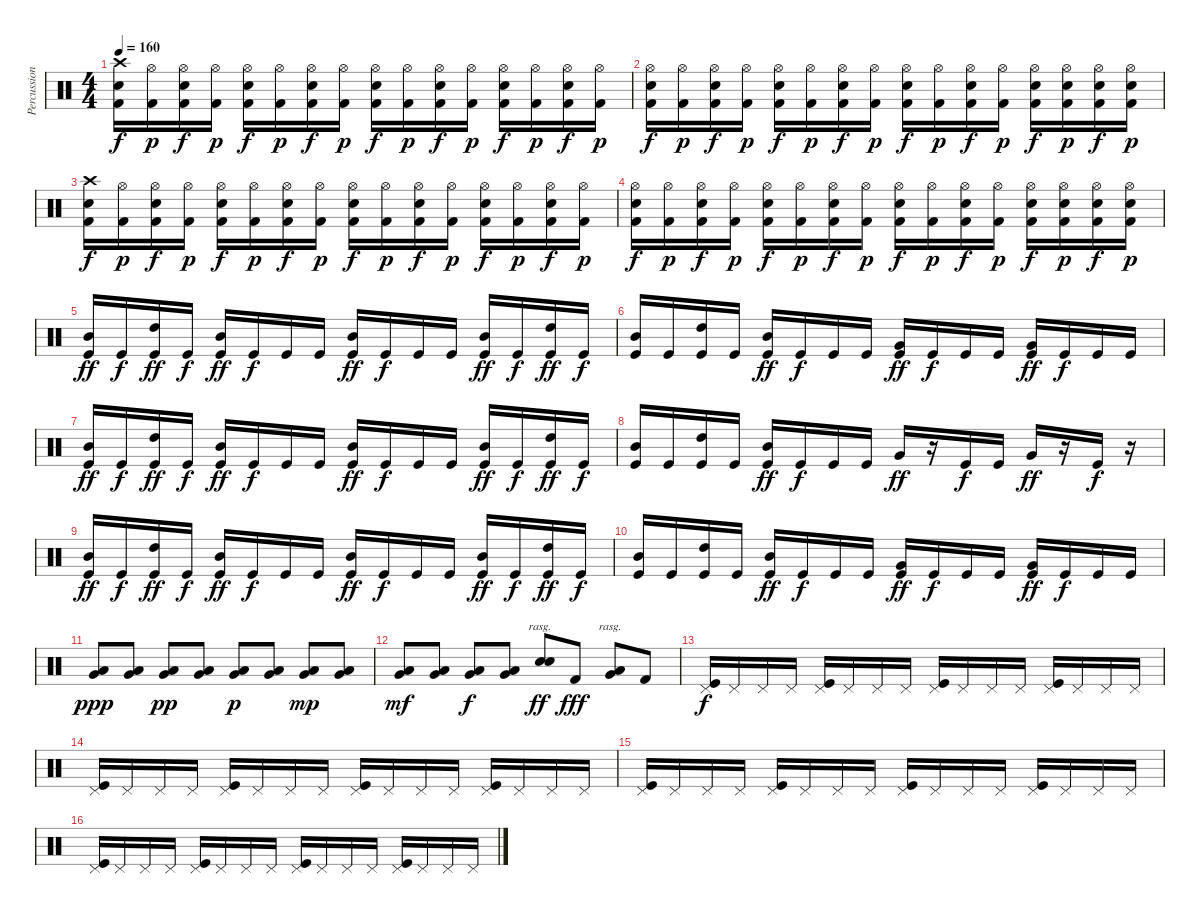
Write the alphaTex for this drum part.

\track ("Percussioni" "Percussion") {instrument percussion}
\staff {score}
\articulation defaults
\ts (4 4)
\tempo 160
\clef neutral
\ks c
("Crash high (hit)" "Electric Snare (hit)" "Kick (hit) 2").16{dy f} ("Hi-Hat (open)" "Kick (hit) 2").16{dy p} ("Hi-Hat (open)" "Electric Snare (hit)" "Kick (hit) 2").16{dy f} ("Hi-Hat (open)" "Kick (hit) 2").16{dy p} ("Hi-Hat (open)" "Electric Snare (hit)" "Kick (hit) 2").16{dy f} ("Hi-Hat (open)" "Kick (hit) 2").16{dy p} ("Hi-Hat (open)" "Electric Snare (hit)" "Kick (hit) 2").16{dy f} ("Hi-Hat (open)" "Kick (hit) 2").16{dy p} ("Hi-Hat (open)" "Electric Snare (hit)" "Kick (hit) 2").16{dy f} ("Hi-Hat (open)" "Kick (hit) 2").16{dy p} ("Hi-Hat (open)" "Electric Snare (hit)" "Kick (hit) 2").16{dy f} ("Hi-Hat (open)" "Kick (hit) 2").16{dy p} ("Hi-Hat (open)" "Electric Snare (hit)" "Kick (hit) 2").16{dy f} ("Hi-Hat (open)" "Kick (hit) 2").16{dy p} ("Hi-Hat (open)" "Electric Snare (hit)" "Kick (hit) 2").16{dy f} ("Hi-Hat (open)" "Kick (hit) 2").16{dy p} |
("Hi-Hat (open)" "Electric Snare (hit)" "Kick (hit) 2").16{dy f} ("Hi-Hat (open)" "Kick (hit) 2").16{dy p} ("Hi-Hat (open)" "Electric Snare (hit)" "Kick (hit) 2").16{dy f} ("Hi-Hat (open)" "Kick (hit) 2").16{dy p} ("Hi-Hat (open)" "Electric Snare (hit)" "Kick (hit) 2").16{dy f} ("Hi-Hat (open)" "Kick (hit) 2").16{dy p} ("Hi-Hat (open)" "Electric Snare (hit)" "Kick (hit) 2").16{dy f} ("Hi-Hat (open)" "Kick (hit) 2").16{dy p} ("Hi-Hat (open)" "Electric Snare (hit)" "Kick (hit) 2").16{dy f} ("Hi-Hat (open)" "Kick (hit) 2").16{dy p} ("Hi-Hat (open)" "Electric Snare (hit)" "Kick (hit) 2").16{dy f} ("Hi-Hat (open)" "Kick (hit) 2").16{dy p} ("Hi-Hat (open)" "Electric Snare (hit)" "Kick (hit) 2").16{dy f} ("Hi-Hat (open)" "Electric Snare (hit)" "Kick (hit) 2").16{dy p} ("Hi-Hat (open)" "Electric Snare (hit)" "Kick (hit) 2").16{dy f} ("Hi-Hat (open)" "Electric Snare (hit)" "Kick (hit) 2").16{dy p} |
("Crash high (hit)" "Electric Snare (hit)" "Kick (hit) 2").16{dy f} ("Hi-Hat (open)" "Kick (hit) 2").16{dy p} ("Hi-Hat (open)" "Electric Snare (hit)" "Kick (hit) 2").16{dy f} ("Hi-Hat (open)" "Kick (hit) 2").16{dy p} ("Hi-Hat (open)" "Electric Snare (hit)" "Kick (hit) 2").16{dy f} ("Hi-Hat (open)" "Kick (hit) 2").16{dy p} ("Hi-Hat (open)" "Electric Snare (hit)" "Kick (hit) 2").16{dy f} ("Hi-Hat (open)" "Kick (hit) 2").16{dy p} ("Hi-Hat (open)" "Electric Snare (hit)" "Kick (hit) 2").16{dy f} ("Hi-Hat (open)" "Kick (hit) 2").16{dy p} ("Hi-Hat (open)" "Electric Snare (hit)" "Kick (hit) 2").16{dy f} ("Hi-Hat (open)" "Kick (hit) 2").16{dy p} ("Hi-Hat (open)" "Electric Snare (hit)" "Kick (hit) 2").16{dy f} ("Hi-Hat (open)" "Kick (hit) 2").16{dy p} ("Hi-Hat (open)" "Electric Snare (hit)" "Kick (hit) 2").16{dy f} ("Hi-Hat (open)" "Kick (hit) 2").16{dy p} |
("Hi-Hat (open)" "Electric Snare (hit)" "Kick (hit) 2").16{dy f} ("Hi-Hat (open)" "Kick (hit) 2").16{dy p} ("Hi-Hat (open)" "Electric Snare (hit)" "Kick (hit) 2").16{dy f} ("Hi-Hat (open)" "Kick (hit) 2").16{dy p} ("Hi-Hat (open)" "Electric Snare (hit)" "Kick (hit) 2").16{dy f} ("Hi-Hat (open)" "Kick (hit) 2").16{dy p} ("Hi-Hat (open)" "Electric Snare (hit)" "Kick (hit) 2").16{dy f} ("Hi-Hat (open)" "Kick (hit) 2").16{dy p} ("Hi-Hat (open)" "Electric Snare (hit)" "Kick (hit) 2").16{dy f} ("Hi-Hat (open)" "Kick (hit) 2").16{dy p} ("Hi-Hat (open)" "Electric Snare (hit)" "Kick (hit) 2").16{dy f} ("Hi-Hat (open)" "Kick (hit) 2").16{dy p} ("Hi-Hat (open)" "Electric Snare (hit)" "Kick (hit) 2").16{dy f} ("Hi-Hat (open)" "Electric Snare (hit)" "Kick (hit) 2").16{dy p} ("Hi-Hat (open)" "Electric Snare (hit)" "Kick (hit) 2").16{dy f} ("Hi-Hat (open)" "Electric Snare (hit)" "Kick (hit) 2").16{dy p} |
("Mid Tom (hit)" "Kick (hit)").16{dy ff} "Kick (hit)".16{dy f} ("High Tom (hit)" "Kick (hit)").16{dy ff} "Kick (hit)".16{dy f} ("Mid Tom (hit)" "Kick (hit)").16{dy ff} "Kick (hit)".16{dy f} "Kick (hit)".16 "Kick (hit)".16 ("Mid Tom (hit)" "Kick (hit)").16{dy ff} "Kick (hit)".16{dy f} "Kick (hit)".16 "Kick (hit)".16 ("Mid Tom (hit)" "Kick (hit)").16{dy ff} "Kick (hit)".16{dy f} ("High Tom (hit)" "Kick (hit)").16{dy ff} "Kick (hit)".16{dy f} |
("Mid Tom (hit)" "Kick (hit)").16 "Kick (hit)".16 ("High Tom (hit)" "Kick (hit)").16 "Kick (hit)".16 ("Mid Tom (hit)" "Kick (hit)").16{dy ff} "Kick (hit)".16{dy f} "Kick (hit)".16 "Kick (hit)".16 ("Very Low Tom (hit)" "Kick (hit)").16{dy ff} "Kick (hit)".16{dy f} "Kick (hit)".16 "Kick (hit)".16 ("Very Low Tom (hit)" "Kick (hit)").16{dy ff} "Kick (hit)".16{dy f} "Kick (hit)".16 "Kick (hit)".16 |
("Mid Tom (hit)" "Kick (hit)").16{dy ff} "Kick (hit)".16{dy f} ("High Tom (hit)" "Kick (hit)").16{dy ff} "Kick (hit)".16{dy f} ("Mid Tom (hit)" "Kick (hit)").16{dy ff} "Kick (hit)".16{dy f} "Kick (hit)".16 "Kick (hit)".16 ("Mid Tom (hit)" "Kick (hit)").16{dy ff} "Kick (hit)".16{dy f} "Kick (hit)".16 "Kick (hit)".16 ("Mid Tom (hit)" "Kick (hit)").16{dy ff} "Kick (hit)".16{dy f} ("High Tom (hit)" "Kick (hit)").16{dy ff} "Kick (hit)".16{dy f} |
("Mid Tom (hit)" "Kick (hit)").16 "Kick (hit)".16 ("High Tom (hit)" "Kick (hit)").16 "Kick (hit)".16 ("Mid Tom (hit)" "Kick (hit)").16{dy ff} "Kick (hit)".16{dy f} "Kick (hit)".16 "Kick (hit)".16 "Very Low Tom (hit)".16{dy ff} r.16 "Kick (hit)".16{dy f} "Kick (hit)".16 "Very Low Tom (hit)".16{dy ff} r.16 "Kick (hit)".16{dy f} r.16 |
("Mid Tom (hit)" "Kick (hit)").16{dy ff} "Kick (hit)".16{dy f} ("High Tom (hit)" "Kick (hit)").16{dy ff} "Kick (hit)".16{dy f} ("Mid Tom (hit)" "Kick (hit)").16{dy ff} "Kick (hit)".16{dy f} "Kick (hit)".16 "Kick (hit)".16 ("Mid Tom (hit)" "Kick (hit)").16{dy ff} "Kick (hit)".16{dy f} "Kick (hit)".16 "Kick (hit)".16 ("Mid Tom (hit)" "Kick (hit)").16{dy ff} "Kick (hit)".16{dy f} ("High Tom (hit)" "Kick (hit)").16{dy ff} "Kick (hit)".16{dy f} |
("Mid Tom (hit)" "Kick (hit)").16 "Kick (hit)".16 ("High Tom (hit)" "Kick (hit)").16 "Kick (hit)".16 ("Mid Tom (hit)" "Kick (hit)").16{dy ff} "Kick (hit)".16{dy f} "Kick (hit)".16 "Kick (hit)".16 ("Very Low Tom (hit)" "Kick (hit)").16{dy ff} "Kick (hit)".16{dy f} "Kick (hit)".16 "Kick (hit)".16 ("Very Low Tom (hit)" "Kick (hit)").16{dy ff} "Kick (hit)".16{dy f} "Kick (hit)".16 "Kick (hit)".16 |
("Low Tom (hit)" "Very Low Tom (hit)").8{dy ppp} ("Low Tom (hit)" "Very Low Tom (hit)").8 ("Low Tom (hit)" "Very Low Tom (hit)").8{dy pp} ("Low Tom (hit)" "Very Low Tom (hit)").8 ("Low Tom (hit)" "Very Low Tom (hit)").8{dy p} ("Low Tom (hit)" "Very Low Tom (hit)").8 ("Low Tom (hit)" "Very Low Tom (hit)").8{dy mp} ("Low Tom (hit)" "Very Low Tom (hit)").8 |
("Low Tom (hit)" "Very Low Tom (hit)").8{dy mf} ("Low Tom (hit)" "Very Low Tom (hit)").8 ("Low Tom (hit)" "Very Low Tom (hit)").8{dy f} ("Low Tom (hit)" "Very Low Tom (hit)").8 ("Snare (hit) 2" "Snare (hit) 2").8{bd 480 rasg ii dy ff} "Kick (hit) 2".8{dy fff} ("Low Tom (hit)" "Very Low Tom (hit)").8{bd 480 rasg ii} "Kick (hit) 2".8 |
("Pedal Hi-Hat (hit)" "Kick (hit)").16{dy f} "Pedal Hi-Hat (hit)".16 "Pedal Hi-Hat (hit)".16 "Pedal Hi-Hat (hit)".16 ("Pedal Hi-Hat (hit)" "Kick (hit)").16 "Pedal Hi-Hat (hit)".16 "Pedal Hi-Hat (hit)".16 "Pedal Hi-Hat (hit)".16 ("Pedal Hi-Hat (hit)" "Kick (hit)").16 "Pedal Hi-Hat (hit)".16 "Pedal Hi-Hat (hit)".16 "Pedal Hi-Hat (hit)".16 ("Pedal Hi-Hat (hit)" "Kick (hit)").16 "Pedal Hi-Hat (hit)".16 "Pedal Hi-Hat (hit)".16 "Pedal Hi-Hat (hit)".16 |
("Pedal Hi-Hat (hit)" "Kick (hit)").16 "Pedal Hi-Hat (hit)".16 "Pedal Hi-Hat (hit)".16 "Pedal Hi-Hat (hit)".16 ("Pedal Hi-Hat (hit)" "Kick (hit)").16 "Pedal Hi-Hat (hit)".16 "Pedal Hi-Hat (hit)".16 "Pedal Hi-Hat (hit)".16 ("Pedal Hi-Hat (hit)" "Kick (hit)").16 "Pedal Hi-Hat (hit)".16 "Pedal Hi-Hat (hit)".16 "Pedal Hi-Hat (hit)".16 ("Pedal Hi-Hat (hit)" "Kick (hit)").16 "Pedal Hi-Hat (hit)".16 "Pedal Hi-Hat (hit)".16 "Pedal Hi-Hat (hit)".16 |
("Pedal Hi-Hat (hit)" "Kick (hit)").16 "Pedal Hi-Hat (hit)".16 "Pedal Hi-Hat (hit)".16 "Pedal Hi-Hat (hit)".16 ("Pedal Hi-Hat (hit)" "Kick (hit)").16 "Pedal Hi-Hat (hit)".16 "Pedal Hi-Hat (hit)".16 "Pedal Hi-Hat (hit)".16 ("Pedal Hi-Hat (hit)" "Kick (hit)").16 "Pedal Hi-Hat (hit)".16 "Pedal Hi-Hat (hit)".16 "Pedal Hi-Hat (hit)".16 ("Pedal Hi-Hat (hit)" "Kick (hit)").16 "Pedal Hi-Hat (hit)".16 "Pedal Hi-Hat (hit)".16 "Pedal Hi-Hat (hit)".16 |
("Pedal Hi-Hat (hit)" "Kick (hit)").16 "Pedal Hi-Hat (hit)".16 "Pedal Hi-Hat (hit)".16 "Pedal Hi-Hat (hit)".16 ("Pedal Hi-Hat (hit)" "Kick (hit)").16 "Pedal Hi-Hat (hit)".16 "Pedal Hi-Hat (hit)".16 "Pedal Hi-Hat (hit)".16 ("Pedal Hi-Hat (hit)" "Kick (hit)").16 "Pedal Hi-Hat (hit)".16 "Pedal Hi-Hat (hit)".16 "Pedal Hi-Hat (hit)".16 ("Pedal Hi-Hat (hit)" "Kick (hit)").16 "Pedal Hi-Hat (hit)".16 "Pedal Hi-Hat (hit)".16 "Pedal Hi-Hat (hit)".16
